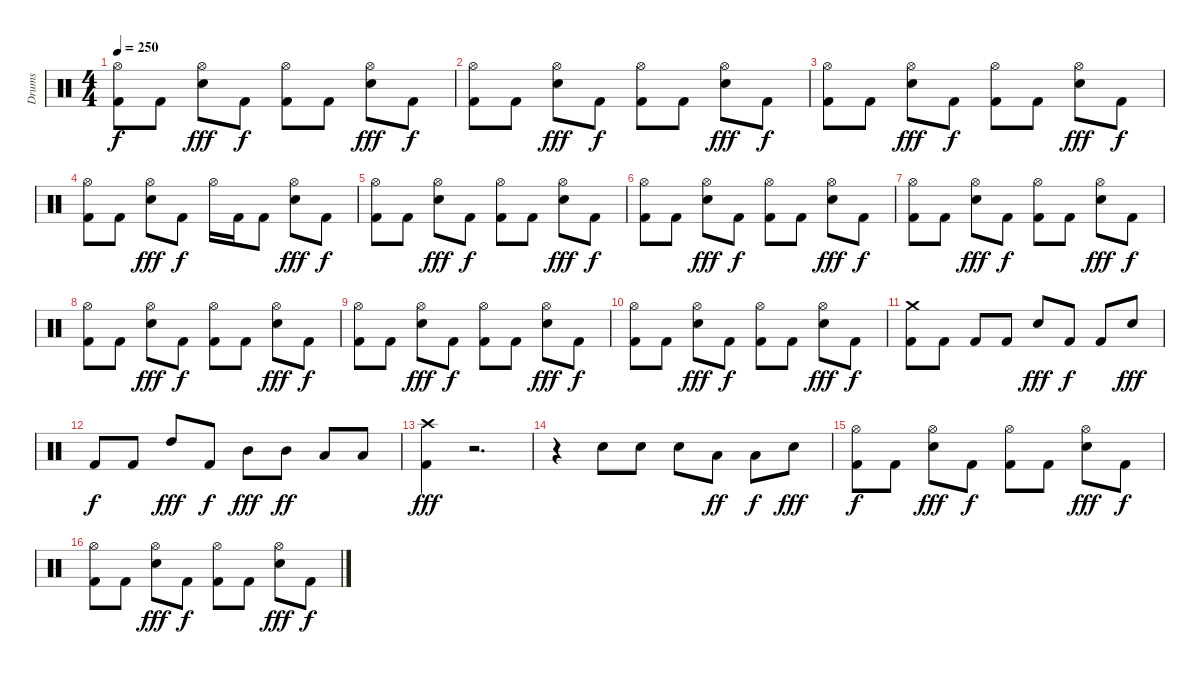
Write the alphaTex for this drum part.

\track ("Drums" "Drums") {instrument percussion}
\staff {score}
\articulation defaults
\ts (4 4)
\tempo 250
\clef neutral
\ks c
("Kick (hit) 2" "Hi-Hat (open)").8{dy f} "Kick (hit) 2".8 ("Hi-Hat (open)" "Snare (hit) 2").8{dy fff} "Kick (hit) 2".8{dy f} ("Hi-Hat (open)" "Kick (hit) 2").8 "Kick (hit) 2".8 ("Hi-Hat (open)" "Snare (hit) 2").8{dy fff} "Kick (hit) 2".8{dy f} |
("Kick (hit) 2" "Hi-Hat (open)").8 "Kick (hit) 2".8 ("Hi-Hat (open)" "Snare (hit) 2").8{dy fff} "Kick (hit) 2".8{dy f} ("Hi-Hat (open)" "Kick (hit) 2").8 "Kick (hit) 2".8 ("Hi-Hat (open)" "Snare (hit) 2").8{dy fff} "Kick (hit) 2".8{dy f} |
("Kick (hit) 2" "Hi-Hat (open)").8 "Kick (hit) 2".8 ("Hi-Hat (open)" "Snare (hit) 2").8{dy fff} "Kick (hit) 2".8{dy f} ("Hi-Hat (open)" "Kick (hit) 2").8 "Kick (hit) 2".8 ("Hi-Hat (open)" "Snare (hit) 2").8{dy fff} "Kick (hit) 2".8{dy f} |
("Hi-Hat (open)" "Kick (hit) 2").8 "Kick (hit) 2".8 ("Hi-Hat (open)" "Snare (hit) 2").8{dy fff} "Kick (hit) 2".8{dy f} "Hi-Hat (open)".16 "Kick (hit) 2".16 "Kick (hit) 2".8 ("Hi-Hat (open)" "Snare (hit) 2").8{dy fff} "Kick (hit) 2".8{dy f} |
("Kick (hit) 2" "Hi-Hat (open)").8 "Kick (hit) 2".8 ("Hi-Hat (open)" "Snare (hit) 2").8{dy fff} "Kick (hit) 2".8{dy f} ("Hi-Hat (open)" "Kick (hit) 2").8 "Kick (hit) 2".8 ("Hi-Hat (open)" "Snare (hit) 2").8{dy fff} "Kick (hit) 2".8{dy f} |
("Kick (hit) 2" "Hi-Hat (open)").8 "Kick (hit) 2".8 ("Hi-Hat (open)" "Snare (hit) 2").8{dy fff} "Kick (hit) 2".8{dy f} ("Hi-Hat (open)" "Kick (hit) 2").8 "Kick (hit) 2".8 ("Hi-Hat (open)" "Snare (hit) 2").8{dy fff} "Kick (hit) 2".8{dy f} |
("Kick (hit) 2" "Hi-Hat (open)").8 "Kick (hit) 2".8 ("Hi-Hat (open)" "Snare (hit) 2").8{dy fff} "Kick (hit) 2".8{dy f} ("Hi-Hat (open)" "Kick (hit) 2").8 "Kick (hit) 2".8 ("Hi-Hat (open)" "Snare (hit) 2").8{dy fff} "Kick (hit) 2".8{dy f} |
("Kick (hit) 2" "Hi-Hat (open)").8 "Kick (hit) 2".8 ("Hi-Hat (open)" "Snare (hit) 2").8{dy fff} "Kick (hit) 2".8{dy f} ("Hi-Hat (open)" "Kick (hit) 2").8 "Kick (hit) 2".8 ("Hi-Hat (open)" "Snare (hit) 2").8{dy fff} "Kick (hit) 2".8{dy f} |
("Kick (hit) 2" "Hi-Hat (open)").8 "Kick (hit) 2".8 ("Hi-Hat (open)" "Snare (hit) 2").8{dy fff} "Kick (hit) 2".8{dy f} ("Hi-Hat (open)" "Kick (hit) 2").8 "Kick (hit) 2".8 ("Hi-Hat (open)" "Snare (hit) 2").8{dy fff} "Kick (hit) 2".8{dy f} |
("Hi-Hat (open)" "Kick (hit) 2").8 "Kick (hit) 2".8 ("Hi-Hat (open)" "Snare (hit) 2").8{dy fff} "Kick (hit) 2".8{dy f} ("Hi-Hat (open)" "Kick (hit) 2").8 "Kick (hit) 2".8 ("Hi-Hat (open)" "Snare (hit) 2").8{dy fff} "Kick (hit) 2".8{dy f} |
("Crash medium (hit)" "Kick (hit) 2").8 "Kick (hit) 2".8 "Kick (hit) 2".8 "Kick (hit) 2".8 "Snare (hit) 2".8{dy fff} "Kick (hit) 2".8{dy f} "Kick (hit) 2".8 "Snare (hit) 2".8{dy fff} |
"Kick (hit) 2".8{dy f} "Kick (hit) 2".8 "High Tom (hit)".8{dy fff} "Kick (hit) 2".8{dy f} "Mid Tom (hit)".8{dy fff} "Mid Tom (hit)".8{dy ff} "Low Tom (hit)".8 "Low Tom (hit)".8 |
("Crash high (hit)" "Kick (hit) 2").4{dy fff} r.2{d} |
r.4 "Snare (hit) 2".8 "Snare (hit) 2".8 "Snare (hit) 2".8 "Low Tom (hit)".8{dy ff} "Low Tom (hit)".8{dy f} "Snare (hit) 2".8{dy fff} |
("Kick (hit) 2" "Hi-Hat (open)").8{dy f} "Kick (hit) 2".8 ("Hi-Hat (open)" "Snare (hit) 2").8{dy fff} "Kick (hit) 2".8{dy f} ("Hi-Hat (open)" "Kick (hit) 2").8 "Kick (hit) 2".8 ("Hi-Hat (open)" "Snare (hit) 2").8{dy fff} "Kick (hit) 2".8{dy f} |
("Kick (hit) 2" "Hi-Hat (open)").8 "Kick (hit) 2".8 ("Hi-Hat (open)" "Snare (hit) 2").8{dy fff} "Kick (hit) 2".8{dy f} ("Hi-Hat (open)" "Kick (hit) 2").8 "Kick (hit) 2".8 ("Hi-Hat (open)" "Snare (hit) 2").8{dy fff} "Kick (hit) 2".8{dy f}
